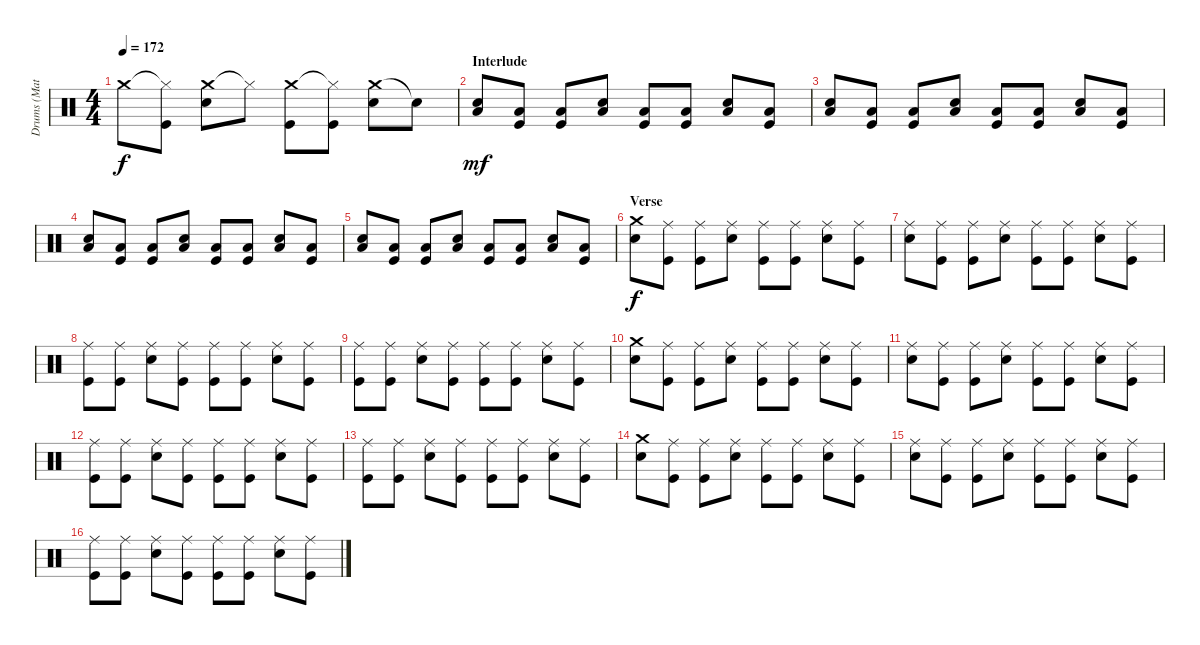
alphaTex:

\track ("Drums (Matt)" "Drums (Mat") {instrument percussion}
\staff {score}
\articulation defaults
\ts (4 4)
\tempo 172
\clef neutral
\ks c "Crash medium (hit)".8{dy f}
("Hi-Hat (closed)"{t} "Kick (hit)").8 ("Crash medium (hit)" "Electric Snare (hit)").8 "Hi-Hat (closed)"{t}.8 ("Crash medium (hit)" "Kick (hit)").8 ("Hi-Hat (closed)"{t} "Kick (hit)").8 ("Crash medium (hit)" "Electric Snare (hit)").8 "Snare (hit)"{t}.8 |
\section ("" "Interlude")
("Electric Snare (hit)" "Low Tom (hit)").8{dy mf} ("Low Tom (hit)" "Kick (hit)").8 ("Low Tom (hit)" "Kick (hit)").8 ("Electric Snare (hit)" "Low Tom (hit)").8 ("Low Tom (hit)" "Kick (hit)").8 ("Low Tom (hit)" "Kick (hit)").8 ("Electric Snare (hit)" "Low Tom (hit)").8 ("Low Tom (hit)" "Kick (hit)").8 |
("Electric Snare (hit)" "Low Tom (hit)").8 ("Low Tom (hit)" "Kick (hit)").8 ("Low Tom (hit)" "Kick (hit)").8 ("Electric Snare (hit)" "Low Tom (hit)").8 ("Low Tom (hit)" "Kick (hit)").8 ("Low Tom (hit)" "Kick (hit)").8 ("Electric Snare (hit)" "Low Tom (hit)").8 ("Low Tom (hit)" "Kick (hit)").8 |
("Electric Snare (hit)" "Low Tom (hit)").8 ("Low Tom (hit)" "Kick (hit)").8 ("Low Tom (hit)" "Kick (hit)").8 ("Electric Snare (hit)" "Low Tom (hit)").8 ("Low Tom (hit)" "Kick (hit)").8 ("Low Tom (hit)" "Kick (hit)").8 ("Electric Snare (hit)" "Low Tom (hit)").8 ("Low Tom (hit)" "Kick (hit)").8 |
("Electric Snare (hit)" "Low Tom (hit)").8 ("Low Tom (hit)" "Kick (hit)").8 ("Low Tom (hit)" "Kick (hit)").8 ("Electric Snare (hit)" "Low Tom (hit)").8 ("Low Tom (hit)" "Kick (hit)").8 ("Low Tom (hit)" "Kick (hit)").8 ("Electric Snare (hit)" "Low Tom (hit)").8 ("Low Tom (hit)" "Kick (hit)").8 |
\section ("" "Verse")
("Crash medium (hit)" "Electric Snare (hit)").8{dy f} ("Ride (middle)" "Kick (hit)").8 ("Ride (middle)" "Kick (hit)").8 ("Ride (middle)" "Electric Snare (hit)").8 ("Ride (middle)" "Kick (hit)").8 ("Ride (middle)" "Kick (hit)").8 ("Ride (middle)" "Electric Snare (hit)").8 ("Ride (middle)" "Kick (hit)").8 |
("Ride (middle)" "Electric Snare (hit)").8 ("Ride (middle)" "Kick (hit)").8 ("Ride (middle)" "Kick (hit)").8 ("Ride (middle)" "Electric Snare (hit)").8 ("Ride (middle)" "Kick (hit)").8 ("Ride (middle)" "Kick (hit)").8 ("Ride (middle)" "Electric Snare (hit)").8 ("Ride (middle)" "Kick (hit)").8 |
("Ride (middle)" "Kick (hit)").8 ("Ride (middle)" "Kick (hit)").8 ("Ride (middle)" "Electric Snare (hit)").8 ("Ride (middle)" "Kick (hit)").8 ("Ride (middle)" "Kick (hit)").8 ("Ride (middle)" "Kick (hit)").8 ("Ride (middle)" "Electric Snare (hit)").8 ("Ride (middle)" "Kick (hit)").8 |
("Ride (middle)" "Kick (hit)").8 ("Ride (middle)" "Kick (hit)").8 ("Ride (middle)" "Electric Snare (hit)").8 ("Ride (middle)" "Kick (hit)").8 ("Ride (middle)" "Kick (hit)").8 ("Ride (middle)" "Kick (hit)").8 ("Ride (middle)" "Electric Snare (hit)").8 ("Ride (middle)" "Kick (hit)").8 |
("Crash medium (hit)" "Electric Snare (hit)").8 ("Ride (middle)" "Kick (hit)").8 ("Ride (middle)" "Kick (hit)").8 ("Ride (middle)" "Electric Snare (hit)").8 ("Ride (middle)" "Kick (hit)").8 ("Ride (middle)" "Kick (hit)").8 ("Ride (middle)" "Electric Snare (hit)").8 ("Ride (middle)" "Kick (hit)").8 |
("Ride (middle)" "Electric Snare (hit)").8 ("Ride (middle)" "Kick (hit)").8 ("Ride (middle)" "Kick (hit)").8 ("Ride (middle)" "Electric Snare (hit)").8 ("Ride (middle)" "Kick (hit)").8 ("Ride (middle)" "Kick (hit)").8 ("Ride (middle)" "Electric Snare (hit)").8 ("Ride (middle)" "Kick (hit)").8 |
("Ride (middle)" "Kick (hit)").8 ("Ride (middle)" "Kick (hit)").8 ("Ride (middle)" "Electric Snare (hit)").8 ("Ride (middle)" "Kick (hit)").8 ("Ride (middle)" "Kick (hit)").8 ("Ride (middle)" "Kick (hit)").8 ("Ride (middle)" "Electric Snare (hit)").8 ("Ride (middle)" "Kick (hit)").8 |
("Ride (middle)" "Kick (hit)").8 ("Ride (middle)" "Kick (hit)").8 ("Ride (middle)" "Electric Snare (hit)").8 ("Ride (middle)" "Kick (hit)").8 ("Ride (middle)" "Kick (hit)").8 ("Ride (middle)" "Kick (hit)").8 ("Ride (middle)" "Electric Snare (hit)").8 ("Ride (middle)" "Kick (hit)").8 |
("Crash medium (hit)" "Electric Snare (hit)").8 ("Ride (middle)" "Kick (hit)").8 ("Ride (middle)" "Kick (hit)").8 ("Ride (middle)" "Electric Snare (hit)").8 ("Ride (middle)" "Kick (hit)").8 ("Ride (middle)" "Kick (hit)").8 ("Ride (middle)" "Electric Snare (hit)").8 ("Ride (middle)" "Kick (hit)").8 |
("Ride (middle)" "Electric Snare (hit)").8 ("Ride (middle)" "Kick (hit)").8 ("Ride (middle)" "Kick (hit)").8 ("Ride (middle)" "Electric Snare (hit)").8 ("Ride (middle)" "Kick (hit)").8 ("Ride (middle)" "Kick (hit)").8 ("Ride (middle)" "Electric Snare (hit)").8 ("Ride (middle)" "Kick (hit)").8 |
("Ride (middle)" "Kick (hit)").8 ("Ride (middle)" "Kick (hit)").8 ("Ride (middle)" "Electric Snare (hit)").8 ("Ride (middle)" "Kick (hit)").8 ("Ride (middle)" "Kick (hit)").8 ("Ride (middle)" "Kick (hit)").8 ("Ride (middle)" "Electric Snare (hit)").8 ("Ride (middle)" "Kick (hit)").8
